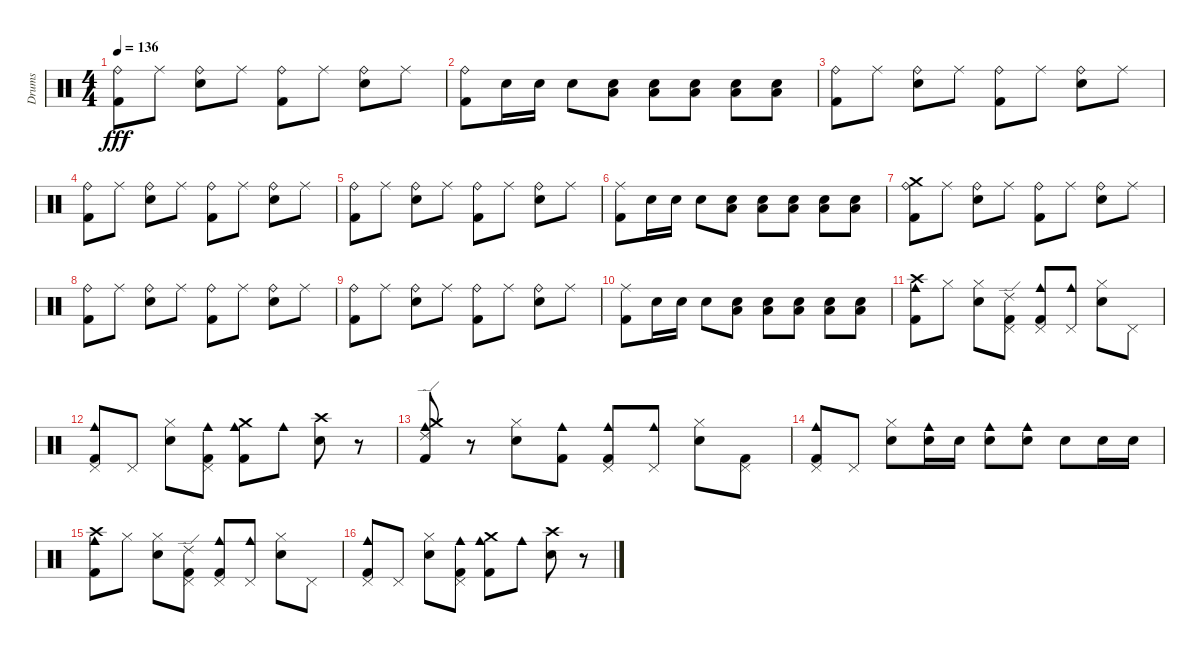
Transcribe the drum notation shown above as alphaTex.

\track ("Drums" "Drums") {instrument percussion}
\staff {score}
\articulation defaults
\ts (4 4)
\tempo 136
\clef neutral
\ks c
("Ride (bell)" "Kick (hit) 2").8{dy fff} "Ride (middle)".8 ("Ride (bell)" "Snare (hit) 2").8 "Ride (middle)".8 ("Ride (bell)" "Kick (hit) 2").8 "Ride (middle)".8 ("Ride (bell)" "Snare (hit) 2").8 "Ride (middle)".8 |
("Ride (bell)" "Kick (hit) 2").8 "Snare (hit) 2".16 "Snare (hit) 2".16 "Snare (hit) 2".8 ("Low Floor Tom (hit)" "Snare (hit) 2").8 ("Low Floor Tom (hit)" "Snare (hit) 2").8 ("Low Floor Tom (hit)" "Snare (hit) 2").8 ("Low Floor Tom (hit)" "Snare (hit) 2").8 ("Low Floor Tom (hit)" "Snare (hit) 2").8 |
("Ride (bell)" "Kick (hit) 2").8 "Ride (middle)".8 ("Ride (bell)" "Snare (hit) 2").8 "Ride (middle)".8 ("Ride (bell)" "Kick (hit) 2").8 "Ride (middle)".8 ("Ride (bell)" "Snare (hit) 2").8 "Ride (middle)".8 |
("Ride (bell)" "Kick (hit) 2").8 "Ride (middle)".8 ("Ride (bell)" "Snare (hit) 2").8 "Ride (middle)".8 ("Ride (bell)" "Kick (hit) 2").8 "Ride (middle)".8 ("Ride (bell)" "Snare (hit) 2").8 "Ride (middle)".8 |
("Ride (bell)" "Kick (hit) 2").8 "Ride (middle)".8 ("Ride (bell)" "Snare (hit) 2").8 "Ride (middle)".8 ("Ride (bell)" "Kick (hit) 2").8 "Ride (middle)".8 ("Ride (bell)" "Snare (hit) 2").8 "Ride (middle)".8 |
("Ride (middle)" "Kick (hit) 2").8 "Snare (hit) 2".16 "Snare (hit) 2".16 "Snare (hit) 2".8 ("Low Floor Tom (hit)" "Snare (hit) 2").8 ("Low Floor Tom (hit)" "Snare (hit) 2").8 ("Low Floor Tom (hit)" "Snare (hit) 2").8 ("Low Floor Tom (hit)" "Snare (hit) 2").8 ("Low Floor Tom (hit)" "Snare (hit) 2").8 |
("Crash medium (hit)" "Ride (bell)" "Kick (hit) 2").8 "Ride (middle)".8 ("Ride (bell)" "Snare (hit) 2").8 "Ride (middle)".8 ("Ride (bell)" "Kick (hit) 2").8 "Ride (middle)".8 ("Ride (bell)" "Snare (hit) 2").8 "Ride (middle)".8 |
("Ride (bell)" "Kick (hit) 2").8 "Ride (middle)".8 ("Ride (bell)" "Snare (hit) 2").8 "Ride (middle)".8 ("Ride (bell)" "Kick (hit) 2").8 "Ride (middle)".8 ("Ride (bell)" "Snare (hit) 2").8 "Ride (middle)".8 |
("Ride (bell)" "Kick (hit) 2").8 "Ride (middle)".8 ("Ride (bell)" "Snare (hit) 2").8 "Ride (middle)".8 ("Ride (bell)" "Kick (hit) 2").8 "Ride (middle)".8 ("Ride (bell)" "Snare (hit) 2").8 "Ride (middle)".8 |
("Ride (middle)" "Kick (hit) 2").8 "Snare (hit) 2".16 "Snare (hit) 2".16 "Snare (hit) 2".8 ("Low Floor Tom (hit)" "Snare (hit) 2").8 ("Low Floor Tom (hit)" "Snare (hit) 2").8 ("Low Floor Tom (hit)" "Snare (hit) 2").8 ("Low Floor Tom (hit)" "Snare (hit) 2").8 ("Low Floor Tom (hit)" "Snare (hit) 2").8 |
("Cowbell medium (hit)" "Crash high (hit)" "Kick (hit) 2").8 "Hi-Hat (closed)".8 ("Hi-Hat (closed)" "Snare (hit) 2").8 ("Ride (edge) 2" "Pedal Hi-Hat (hit)" "Kick (hit) 2").8 ("Cowbell medium (hit)" "Pedal Hi-Hat (hit)" "Kick (hit) 2").8 ("Cowbell medium (hit)" "Pedal Hi-Hat (hit)").8 ("Hi-Hat (closed)" "Snare (hit) 2").8 "Pedal Hi-Hat (hit)".8 |
("Cowbell medium (hit)" "Pedal Hi-Hat (hit)" "Kick (hit) 2").8 "Pedal Hi-Hat (hit)".8 ("Hi-Hat (closed)" "Snare (hit) 2").8 ("Cowbell medium (hit)" "Pedal Hi-Hat (hit)" "Kick (hit) 2").8 ("Crash medium (hit)" "Cowbell medium (hit)" "Kick (hit) 2").8 "Cowbell medium (hit)".8 ("Crash high (hit)" "Snare (hit) 2").8 r.8 |
("Ride (edge) 2" "Crash medium (hit)" "Cowbell medium (hit)" "Kick (hit) 2").8 r.8 ("Hi-Hat (closed)" "Snare (hit) 2").8 ("Cowbell medium (hit)" "Kick (hit) 2").8 ("Cowbell medium (hit)" "Pedal Hi-Hat (hit)" "Kick (hit) 2").8 ("Cowbell medium (hit)" "Pedal Hi-Hat (hit)").8 ("Hi-Hat (closed)" "Snare (hit) 2").8 ("Pedal Hi-Hat (hit)" "Kick (hit) 2").8 |
("Cowbell medium (hit)" "Pedal Hi-Hat (hit)" "Kick (hit) 2").8 "Pedal Hi-Hat (hit)".8 ("Hi-Hat (closed)" "Snare (hit) 2").8 ("Cowbell medium (hit)" "Snare (hit) 2").16 "Snare (hit) 2".16 ("Cowbell medium (hit)" "Snare (hit) 2").8 ("Cowbell medium (hit)" "Snare (hit) 2").8 "Snare (hit) 2".8 "Snare (hit) 2".16 "Snare (hit) 2".16 |
("Cowbell medium (hit)" "Crash high (hit)" "Kick (hit) 2").8 "Hi-Hat (closed)".8 ("Hi-Hat (closed)" "Snare (hit) 2").8 ("Ride (edge) 2" "Pedal Hi-Hat (hit)" "Kick (hit) 2").8 ("Cowbell medium (hit)" "Pedal Hi-Hat (hit)" "Kick (hit) 2").8 ("Cowbell medium (hit)" "Pedal Hi-Hat (hit)").8 ("Hi-Hat (closed)" "Snare (hit) 2").8 "Pedal Hi-Hat (hit)".8 |
("Cowbell medium (hit)" "Pedal Hi-Hat (hit)" "Kick (hit) 2").8 "Pedal Hi-Hat (hit)".8 ("Hi-Hat (closed)" "Snare (hit) 2").8 ("Cowbell medium (hit)" "Pedal Hi-Hat (hit)" "Kick (hit) 2").8 ("Crash medium (hit)" "Cowbell medium (hit)" "Kick (hit) 2").8 "Cowbell medium (hit)".8 ("Crash high (hit)" "Snare (hit) 2").8 r.8
